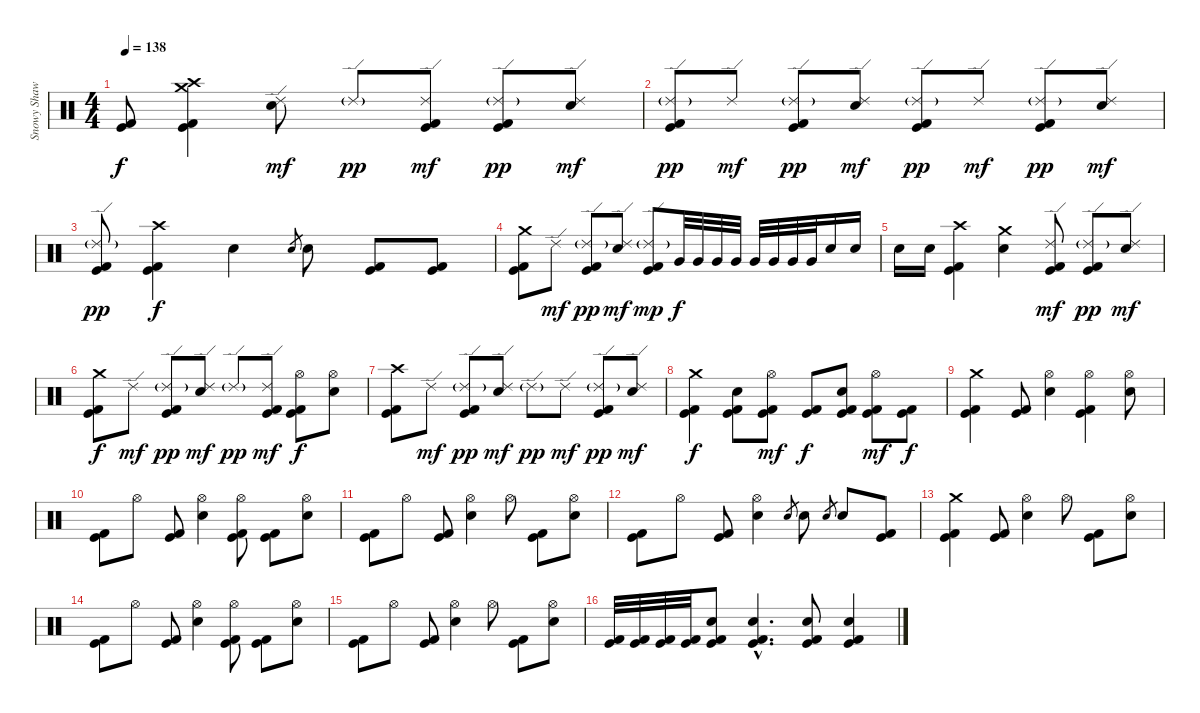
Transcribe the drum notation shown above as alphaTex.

\track ("Snowy Shaw - Drums" "Snowy Shaw") {instrument percussion}
\staff {score}
\articulation defaults
\ts (4 4)
\tempo 138
\clef neutral
\ks c
("Kick (hit)" "Kick (hit) 2").8{dy f} ("Crash medium (hit)" "Crash high (hit)" "Kick (hit)" "Kick (hit) 2").4 ("Ride (edge) 2" "Electric Snare (hit)").8{dy mf} "Ride (edge) 2"{g}.8{dy pp} ("Ride (edge) 2" "Kick (hit)" "Kick (hit) 2").8{dy mf} ("Ride (edge) 2"{g} "Kick (hit)" "Kick (hit) 2").8{dy pp} ("Ride (edge) 2" "Electric Snare (hit)").8{dy mf} |
("Ride (edge) 2"{g} "Kick (hit)" "Kick (hit) 2").8{dy pp} "Ride (edge) 2".8{dy mf} ("Ride (edge) 2"{g} "Kick (hit)" "Kick (hit) 2").8{dy pp} ("Ride (edge) 2" "Electric Snare (hit)").8{dy mf} ("Ride (edge) 2"{g} "Kick (hit)" "Kick (hit) 2").8{dy pp} "Ride (edge) 2".8{dy mf} ("Ride (edge) 2"{g} "Kick (hit)" "Kick (hit) 2").8{dy pp} ("Ride (edge) 2" "Electric Snare (hit)").8{dy mf} |
("Ride (edge) 2"{g} "Kick (hit)" "Kick (hit) 2").8{dy pp} ("Crash high (hit)" "Kick (hit)" "Kick (hit) 2").4{dy f} "Electric Snare (hit)".4 "Electric Snare (hit)".8{gr} "Electric Snare (hit)".8 ("Kick (hit)" "Kick (hit) 2").8 ("Kick (hit)" "Kick (hit) 2").8 |
("Crash medium (hit)" "Kick (hit)" "Kick (hit) 2").8 "Ride (edge) 2".8{dy mf} ("Ride (edge) 2"{g} "Kick (hit)" "Kick (hit) 2").8{dy pp} ("Ride (edge) 2" "Electric Snare (hit)").8{dy mf} ("Ride (edge) 2"{g} "Kick (hit)" "Kick (hit) 2").8{dy mp} "Very Low Tom (hit)".32{dy f} "Very Low Tom (hit)".32 "Very Low Tom (hit)".32 "Very Low Tom (hit)".32 "Very Low Tom (hit)".32 "Very Low Tom (hit)".32 "Very Low Tom (hit)".32 "Very Low Tom (hit)".32 "Electric Snare (hit)".16 "Electric Snare (hit)".16 |
"Electric Snare (hit)".16 "Electric Snare (hit)".16 ("Crash high (hit)" "Kick (hit)" "Kick (hit) 2").4 ("Crash medium (hit)" "Electric Snare (hit)").4 ("Ride (edge) 2" "Kick (hit)" "Kick (hit) 2").8{dy mf} ("Ride (edge) 2"{g} "Kick (hit)" "Kick (hit) 2").8{dy pp} ("Ride (edge) 2" "Electric Snare (hit)").8{dy mf} |
("Crash medium (hit)" "Kick (hit)" "Kick (hit) 2").8{dy f} "Ride (edge) 2".8{dy mf} ("Ride (edge) 2"{g} "Kick (hit)" "Kick (hit) 2").8{dy pp} ("Ride (edge) 2" "Electric Snare (hit)").8{dy mf} "Ride (edge) 2"{g}.8{dy pp} ("Ride (edge) 2" "Kick (hit)" "Kick (hit) 2").8{dy mf} ("Hi-Hat (open)" "Kick (hit)" "Kick (hit) 2").8{dy f} ("Hi-Hat (open)" "Electric Snare (hit)").8 |
("Crash high (hit)" "Kick (hit)" "Kick (hit) 2").8 "Ride (edge) 2".8{dy mf} ("Ride (edge) 2"{g} "Kick (hit)" "Kick (hit) 2").8{dy pp} ("Ride (edge) 2" "Electric Snare (hit)").8{dy mf} "Ride (edge) 2"{g}.8{dy pp} "Ride (edge) 2".8{dy mf} ("Ride (edge) 2"{g} "Kick (hit)" "Kick (hit) 2").8{dy pp} ("Ride (edge) 2" "Electric Snare (hit)").8{dy mf} |
("Crash medium (hit)" "Kick (hit)" "Kick (hit) 2").4{dy f} ("Electric Snare (hit)" "Kick (hit)" "Kick (hit) 2").8 ("Hi-Hat (open)" "Kick (hit)" "Kick (hit) 2").8{dy mf} ("Kick (hit)" "Kick (hit) 2").8{dy f} ("Electric Snare (hit)" "Kick (hit)" "Kick (hit) 2").8 ("Hi-Hat (open)" "Kick (hit)" "Kick (hit) 2").8{dy mf} ("Kick (hit)" "Kick (hit) 2").8{dy f} |
("Crash medium (hit)" "Kick (hit)" "Kick (hit) 2").4 ("Kick (hit)" "Kick (hit) 2").8 ("Hi-Hat (open)" "Electric Snare (hit)").4 ("Hi-Hat (open)" "Kick (hit)" "Kick (hit) 2").4 ("Hi-Hat (open)" "Electric Snare (hit)").8 |
("Kick (hit)" "Kick (hit) 2").8 "Hi-Hat (open)".8 ("Kick (hit)" "Kick (hit) 2").8 ("Hi-Hat (open)" "Electric Snare (hit)").4 ("Hi-Hat (open)" "Kick (hit)" "Kick (hit) 2").8 ("Kick (hit)" "Kick (hit) 2").8 ("Hi-Hat (open)" "Electric Snare (hit)").8 |
("Kick (hit)" "Kick (hit) 2").8 "Hi-Hat (open)".8 ("Kick (hit)" "Kick (hit) 2").8 ("Hi-Hat (open)" "Electric Snare (hit)").4 "Hi-Hat (open)".8 ("Kick (hit)" "Kick (hit) 2").8 ("Hi-Hat (open)" "Electric Snare (hit)").8 |
("Kick (hit)" "Kick (hit) 2").8 "Hi-Hat (open)".8 ("Kick (hit)" "Kick (hit) 2").8 ("Hi-Hat (open)" "Electric Snare (hit)").4 "Electric Snare (hit)".8{gr} "Electric Snare (hit)".8 "Electric Snare (hit)".8{gr} "Electric Snare (hit)".8 ("Kick (hit)" "Kick (hit) 2").8 |
("Crash medium (hit)" "Kick (hit)" "Kick (hit) 2").4 ("Kick (hit)" "Kick (hit) 2").8 ("Hi-Hat (open)" "Electric Snare (hit)").4 "Hi-Hat (open)".8 ("Kick (hit)" "Kick (hit) 2").8 ("Hi-Hat (open)" "Electric Snare (hit)").8 |
("Kick (hit)" "Kick (hit) 2").8 "Hi-Hat (open)".8 ("Kick (hit)" "Kick (hit) 2").8 ("Hi-Hat (open)" "Electric Snare (hit)").4 ("Hi-Hat (open)" "Kick (hit)" "Kick (hit) 2").8 ("Kick (hit)" "Kick (hit) 2").8 ("Hi-Hat (open)" "Electric Snare (hit)").8 |
("Kick (hit)" "Kick (hit) 2").8 "Hi-Hat (open)".8 ("Kick (hit)" "Kick (hit) 2").8 ("Hi-Hat (open)" "Electric Snare (hit)").4 "Hi-Hat (open)".8 ("Kick (hit)" "Kick (hit) 2").8 ("Hi-Hat (open)" "Electric Snare (hit)").8 |
("Kick (hit)" "Kick (hit) 2").32 ("Kick (hit)" "Kick (hit) 2").32 ("Kick (hit)" "Kick (hit) 2").32 ("Kick (hit)" "Kick (hit) 2").32 ("Electric Snare (hit)" "Kick (hit)" "Kick (hit) 2").8 ("Electric Snare (hit)"{hac} "Kick (hit)"{hac} "Kick (hit) 2"{hac}).4{d} ("Electric Snare (hit)" "Kick (hit)" "Kick (hit) 2").8 ("Electric Snare (hit)" "Kick (hit)" "Kick (hit) 2").4
